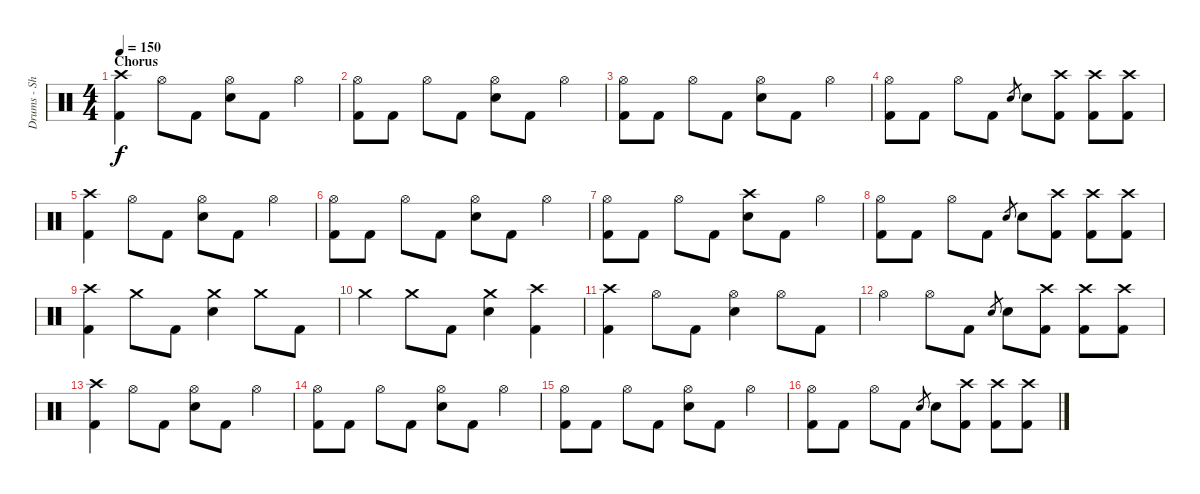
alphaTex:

\track ("Drums - Shelton" "Drums - Sh") {instrument percussion}
\staff {score}
\articulation defaults
\ts (4 4)
\section ("" "Chorus")
\tempo 150
\clef neutral
\ks c
("Crash high (hit)" "Kick (hit) 2").4{dy f} "Hi-Hat (open)".8 "Kick (hit) 2".8 ("Hi-Hat (open)" "Electric Snare (hit)").8 "Kick (hit) 2".8 "Hi-Hat (open)".4 |
("Hi-Hat (open)" "Kick (hit) 2").8 "Kick (hit) 2".8 "Hi-Hat (open)".8 "Kick (hit) 2".8 ("Hi-Hat (open)" "Electric Snare (hit)").8 "Kick (hit) 2".8 "Hi-Hat (open)".4 |
("Hi-Hat (open)" "Kick (hit) 2").8 "Kick (hit) 2".8 "Hi-Hat (open)".8 "Kick (hit) 2".8 ("Hi-Hat (open)" "Electric Snare (hit)").8 "Kick (hit) 2".8 "Hi-Hat (open)".4 |
("Hi-Hat (open)" "Kick (hit) 2").8 "Kick (hit) 2".8 "Hi-Hat (open)".8 "Kick (hit) 2".8 "Electric Snare (hit)".8{gr} "Electric Snare (hit)".8 ("Crash high (hit)" "Kick (hit) 2").8 ("Crash high (hit)" "Kick (hit) 2").8 ("Crash high (hit)" "Kick (hit) 2").8 |
("Crash high (hit)" "Kick (hit) 2").4 "Hi-Hat (open)".8 "Kick (hit) 2".8 ("Hi-Hat (open)" "Electric Snare (hit)").8 "Kick (hit) 2".8 "Hi-Hat (open)".4 |
("Hi-Hat (open)" "Kick (hit) 2").8 "Kick (hit) 2".8 "Hi-Hat (open)".8 "Kick (hit) 2".8 ("Hi-Hat (open)" "Electric Snare (hit)").8 "Kick (hit) 2".8 "Hi-Hat (open)".4 |
("Hi-Hat (open)" "Kick (hit) 2").8 "Kick (hit) 2".8 "Hi-Hat (open)".8 "Kick (hit) 2".8 ("Crash high (hit)" "Electric Snare (hit)").8 "Kick (hit) 2".8 "Hi-Hat (open)".4 |
("Hi-Hat (open)" "Kick (hit) 2").8 "Kick (hit) 2".8 "Hi-Hat (open)".8 "Kick (hit) 2".8 "Electric Snare (hit)".8{gr} "Electric Snare (hit)".8 ("Crash high (hit)" "Kick (hit) 2").8 ("Crash high (hit)" "Kick (hit) 2").8 ("Crash high (hit)" "Kick (hit) 2").8 |
("Crash high (hit)" "Kick (hit) 2").4 "Crash medium (hit)".8 "Kick (hit) 2".8 ("Crash medium (hit)" "Electric Snare (hit)").4 "Crash medium (hit)".8 "Kick (hit) 2".8 |
"Crash medium (hit)".4 "Crash medium (hit)".8 "Kick (hit) 2".8 ("Crash medium (hit)" "Electric Snare (hit)").4 ("Crash high (hit)" "Kick (hit) 2").4 |
("Crash high (hit)" "Kick (hit) 2").4 "Hi-Hat (open)".8 "Kick (hit) 2".8 ("Hi-Hat (open)" "Electric Snare (hit)").4 "Hi-Hat (open)".8 "Kick (hit) 2".8 |
"Hi-Hat (open)".4 "Hi-Hat (open)".8 "Kick (hit) 2".8 "Electric Snare (hit)".8{gr} "Electric Snare (hit)".8 ("Crash high (hit)" "Kick (hit) 2").8 ("Crash high (hit)" "Kick (hit) 2").8 ("Crash high (hit)" "Kick (hit) 2").8 |
("Crash high (hit)" "Kick (hit) 2").4 "Hi-Hat (open)".8 "Kick (hit) 2".8 ("Hi-Hat (open)" "Electric Snare (hit)").8 "Kick (hit) 2".8 "Hi-Hat (open)".4 |
("Hi-Hat (open)" "Kick (hit) 2").8 "Kick (hit) 2".8 "Hi-Hat (open)".8 "Kick (hit) 2".8 ("Hi-Hat (open)" "Electric Snare (hit)").8 "Kick (hit) 2".8 "Hi-Hat (open)".4 |
("Hi-Hat (open)" "Kick (hit) 2").8 "Kick (hit) 2".8 "Hi-Hat (open)".8 "Kick (hit) 2".8 ("Hi-Hat (open)" "Electric Snare (hit)").8 "Kick (hit) 2".8 "Hi-Hat (open)".4 |
("Hi-Hat (open)" "Kick (hit) 2").8 "Kick (hit) 2".8 "Hi-Hat (open)".8 "Kick (hit) 2".8 "Electric Snare (hit)".8{gr} "Electric Snare (hit)".8 ("Crash high (hit)" "Kick (hit) 2").8 ("Crash high (hit)" "Kick (hit) 2").8 ("Crash high (hit)" "Kick (hit) 2").8
